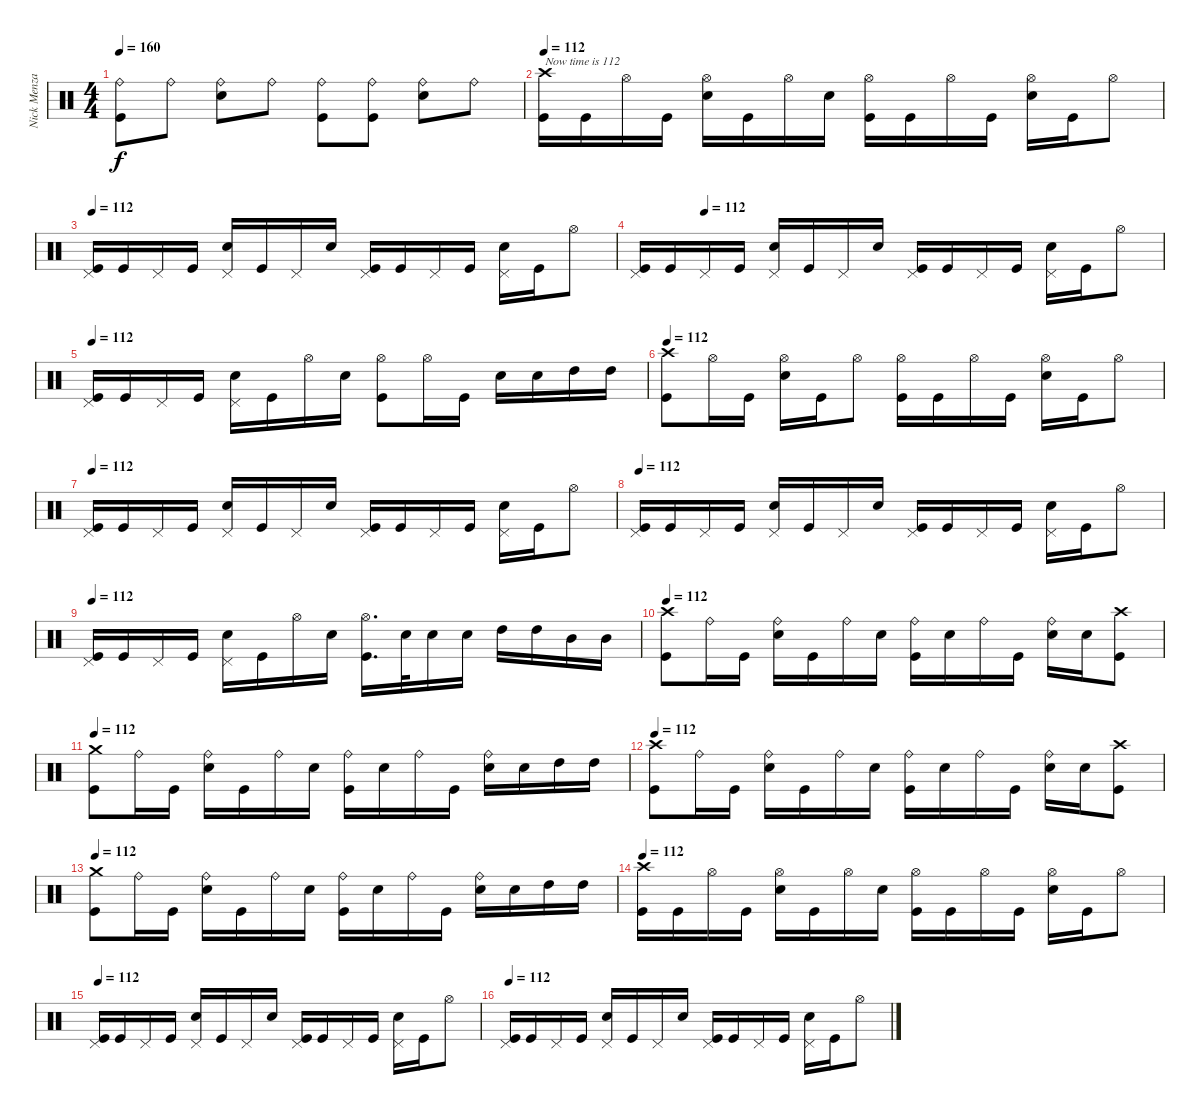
\track ("Nick Menza" "Nick Menza") {instrument percussion}
\staff {score}
\articulation defaults
\ts (4 4)
\tempo 160
\clef neutral
\ks c
("Ride (bell)" "Kick (hit)").8{dy f} "Ride (bell)".8 ("Ride (bell)" "Snare (hit) 2").8 "Ride (bell)".8 ("Ride (bell)" "Kick (hit)").8 ("Ride (bell)" "Kick (hit)").8 ("Ride (bell)" "Snare (hit) 2").8 "Ride (bell)".8 |
\tempo 112
("Crash high (hit)" "Kick (hit)").16{txt "Now time is 112"} "Kick (hit)".16 "Hi-Hat (open)".16 "Kick (hit)".16 ("Hi-Hat (open)" "Snare (hit) 2").16 "Kick (hit)".16 "Hi-Hat (open)".16 "Snare (hit) 2".16 ("Hi-Hat (open)" "Kick (hit)").16 "Kick (hit)".16 "Hi-Hat (open)".16 "Kick (hit)".16 ("Hi-Hat (open)" "Snare (hit) 2").16 "Kick (hit)".16 "Hi-Hat (open)".8 |
\tempo 112
("Pedal Hi-Hat (hit)" "Kick (hit)").16 "Kick (hit)".16 "Pedal Hi-Hat (hit)".16 "Kick (hit)".16 ("Pedal Hi-Hat (hit)" "Snare (hit) 2").16 "Kick (hit)".16 "Pedal Hi-Hat (hit)".16 "Snare (hit) 2".16 ("Pedal Hi-Hat (hit)" "Kick (hit)").16 "Kick (hit)".16 "Pedal Hi-Hat (hit)".16 "Kick (hit)".16 ("Pedal Hi-Hat (hit)" "Snare (hit) 2").16 "Kick (hit)".16 "Hi-Hat (open)".8 |
\tempo (112 0.125)
("Pedal Hi-Hat (hit)" "Kick (hit)").16 "Kick (hit)".16 "Pedal Hi-Hat (hit)".16 "Kick (hit)".16 ("Pedal Hi-Hat (hit)" "Snare (hit) 2").16 "Kick (hit)".16 "Pedal Hi-Hat (hit)".16 "Snare (hit) 2".16 ("Pedal Hi-Hat (hit)" "Kick (hit)").16 "Kick (hit)".16 "Pedal Hi-Hat (hit)".16 "Kick (hit)".16 ("Pedal Hi-Hat (hit)" "Snare (hit) 2").16 "Kick (hit)".16 "Hi-Hat (open)".8 |
\tempo 112
("Pedal Hi-Hat (hit)" "Kick (hit)").16 "Kick (hit)".16 "Pedal Hi-Hat (hit)".16 "Kick (hit)".16 ("Pedal Hi-Hat (hit)" "Snare (hit) 2").16 "Kick (hit)".16 "Hi-Hat (open)".16 "Snare (hit) 2".16 ("Hi-Hat (open)" "Kick (hit)").8 "Hi-Hat (open)".16 "Kick (hit)".16 "Snare (hit) 2".16 "Snare (hit) 2".16 "High Tom (hit)".16 "High Tom (hit)".16 |
\tempo 112
("Crash high (hit)" "Kick (hit)").8 "Hi-Hat (open)".16 "Kick (hit)".16 ("Hi-Hat (open)" "Snare (hit) 2").16 "Kick (hit)".16 "Hi-Hat (open)".8 ("Hi-Hat (open)" "Kick (hit)").16 "Kick (hit)".16 "Hi-Hat (open)".16 "Kick (hit)".16 ("Hi-Hat (open)" "Snare (hit) 2").16 "Kick (hit)".16 "Hi-Hat (open)".8 |
\tempo 112
("Pedal Hi-Hat (hit)" "Kick (hit)").16 "Kick (hit)".16 "Pedal Hi-Hat (hit)".16 "Kick (hit)".16 ("Pedal Hi-Hat (hit)" "Snare (hit) 2").16 "Kick (hit)".16 "Pedal Hi-Hat (hit)".16 "Snare (hit) 2".16 ("Pedal Hi-Hat (hit)" "Kick (hit)").16 "Kick (hit)".16 "Pedal Hi-Hat (hit)".16 "Kick (hit)".16 ("Pedal Hi-Hat (hit)" "Snare (hit) 2").16 "Kick (hit)".16 "Hi-Hat (open)".8 |
\tempo 112
("Pedal Hi-Hat (hit)" "Kick (hit)").16 "Kick (hit)".16 "Pedal Hi-Hat (hit)".16 "Kick (hit)".16 ("Pedal Hi-Hat (hit)" "Snare (hit) 2").16 "Kick (hit)".16 "Pedal Hi-Hat (hit)".16 "Snare (hit) 2".16 ("Pedal Hi-Hat (hit)" "Kick (hit)").16 "Kick (hit)".16 "Pedal Hi-Hat (hit)".16 "Kick (hit)".16 ("Pedal Hi-Hat (hit)" "Snare (hit) 2").16 "Kick (hit)".16 "Hi-Hat (open)".8 |
\tempo 112
("Pedal Hi-Hat (hit)" "Kick (hit)").16 "Kick (hit)".16 "Pedal Hi-Hat (hit)".16 "Kick (hit)".16 ("Pedal Hi-Hat (hit)" "Snare (hit) 2").16 "Kick (hit)".16 "Hi-Hat (open)".16 "Snare (hit) 2".16 ("Hi-Hat (open)" "Kick (hit)").16{d} "Snare (hit) 2".32 "Snare (hit) 2".16 "Snare (hit) 2".16 "High Tom (hit)".16 "High Tom (hit)".16 "Mid Tom (hit)".16 "Mid Tom (hit)".16 |
\tempo 112
("Crash high (hit)" "Kick (hit)").8 "Ride (bell)".16 "Kick (hit)".16 ("Ride (bell)" "Snare (hit) 2").16 "Kick (hit)".16 "Ride (bell)".16 "Snare (hit) 2".16 ("Ride (bell)" "Kick (hit)").16 "Snare (hit) 2".16 "Ride (bell)".16 "Kick (hit)".16 ("Ride (bell)" "Snare (hit) 2").16 "Snare (hit) 2".16 ("Crash high (hit)" "Kick (hit)").8 |
\tempo 112
("Crash medium (hit)" "Kick (hit)").8 "Ride (bell)".16 "Kick (hit)".16 ("Ride (bell)" "Snare (hit) 2").16 "Kick (hit)".16 "Ride (bell)".16 "Snare (hit) 2".16 ("Ride (bell)" "Kick (hit)").16 "Snare (hit) 2".16 "Ride (bell)".16 "Kick (hit)".16 ("Ride (bell)" "Snare (hit) 2").16 "Snare (hit) 2".16 "High Tom (hit)".16 "High Tom (hit)".16 |
\tempo 112
("Crash high (hit)" "Kick (hit)").8 "Ride (bell)".16 "Kick (hit)".16 ("Ride (bell)" "Snare (hit) 2").16 "Kick (hit)".16 "Ride (bell)".16 "Snare (hit) 2".16 ("Ride (bell)" "Kick (hit)").16 "Snare (hit) 2".16 "Ride (bell)".16 "Kick (hit)".16 ("Ride (bell)" "Snare (hit) 2").16 "Snare (hit) 2".16 ("Crash high (hit)" "Kick (hit)").8 |
\tempo 112
("Crash medium (hit)" "Kick (hit)").8 "Ride (bell)".16 "Kick (hit)".16 ("Ride (bell)" "Snare (hit) 2").16 "Kick (hit)".16 "Ride (bell)".16 "Snare (hit) 2".16 ("Ride (bell)" "Kick (hit)").16 "Snare (hit) 2".16 "Ride (bell)".16 "Kick (hit)".16 ("Ride (bell)" "Snare (hit) 2").16 "Snare (hit) 2".16 "High Tom (hit)".16 "High Tom (hit)".16 |
\tempo 112
("Crash high (hit)" "Kick (hit)").16 "Kick (hit)".16 "Hi-Hat (open)".16 "Kick (hit)".16 ("Hi-Hat (open)" "Snare (hit) 2").16 "Kick (hit)".16 "Hi-Hat (open)".16 "Snare (hit) 2".16 ("Hi-Hat (open)" "Kick (hit)").16 "Kick (hit)".16 "Hi-Hat (open)".16 "Kick (hit)".16 ("Hi-Hat (open)" "Snare (hit) 2").16 "Kick (hit)".16 "Hi-Hat (open)".8 |
\tempo 112
("Pedal Hi-Hat (hit)" "Kick (hit)").16 "Kick (hit)".16 "Pedal Hi-Hat (hit)".16 "Kick (hit)".16 ("Pedal Hi-Hat (hit)" "Snare (hit) 2").16 "Kick (hit)".16 "Pedal Hi-Hat (hit)".16 "Snare (hit) 2".16 ("Pedal Hi-Hat (hit)" "Kick (hit)").16 "Kick (hit)".16 "Pedal Hi-Hat (hit)".16 "Kick (hit)".16 ("Pedal Hi-Hat (hit)" "Snare (hit) 2").16 "Kick (hit)".16 "Hi-Hat (open)".8 |
\tempo 112
("Pedal Hi-Hat (hit)" "Kick (hit)").16 "Kick (hit)".16 "Pedal Hi-Hat (hit)".16 "Kick (hit)".16 ("Pedal Hi-Hat (hit)" "Snare (hit) 2").16 "Kick (hit)".16 "Pedal Hi-Hat (hit)".16 "Snare (hit) 2".16 ("Pedal Hi-Hat (hit)" "Kick (hit)").16 "Kick (hit)".16 "Pedal Hi-Hat (hit)".16 "Kick (hit)".16 ("Pedal Hi-Hat (hit)" "Snare (hit) 2").16 "Kick (hit)".16 "Hi-Hat (open)".8
